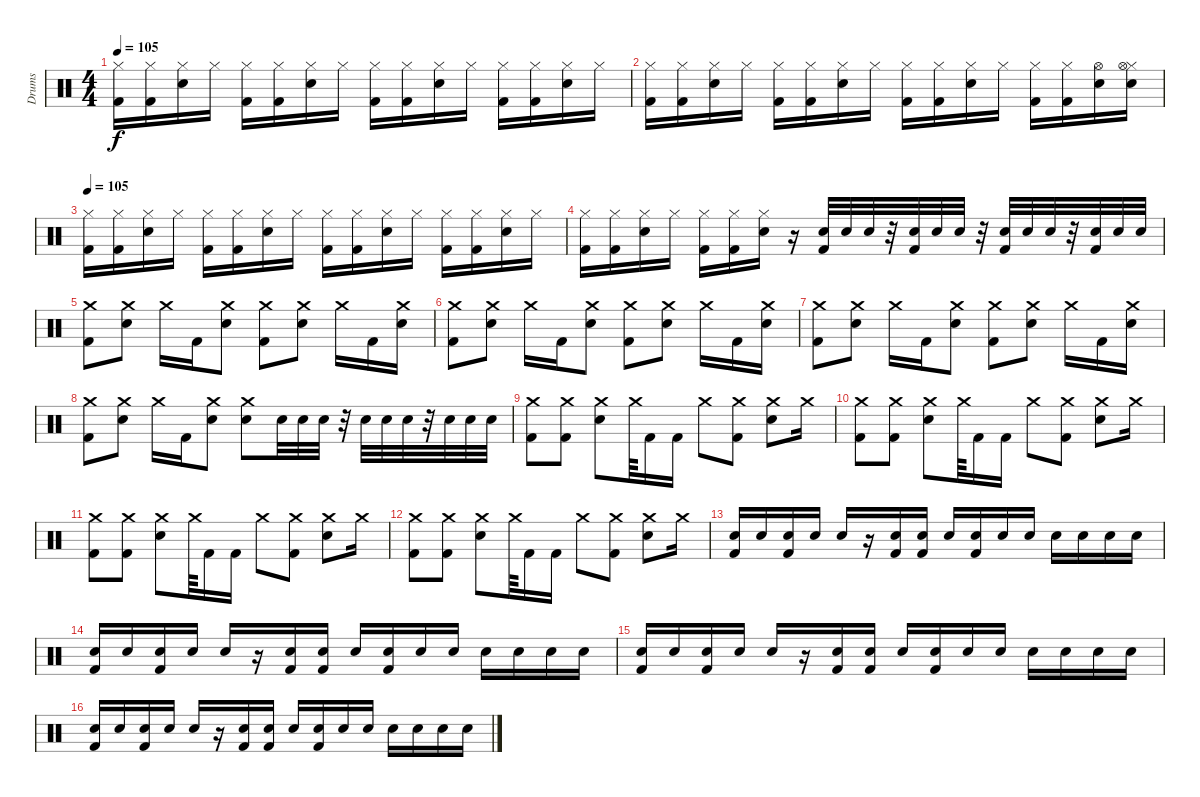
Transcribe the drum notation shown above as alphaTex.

\track ("Drums" "Drums") {instrument percussion}
\staff {score}
\articulation defaults
\ts (4 4)
\tempo 105
\clef neutral
\ks c
("Hi-Hat (closed)" "Kick (hit) 2").16{dy f} ("Hi-Hat (closed)" "Kick (hit) 2").16 ("Hi-Hat (closed)" "Snare (hit) 2").16 "Hi-Hat (closed)".16 ("Hi-Hat (closed)" "Kick (hit) 2").16 ("Hi-Hat (closed)" "Kick (hit) 2").16 ("Hi-Hat (closed)" "Snare (hit) 2").16 "Hi-Hat (closed)".16 ("Hi-Hat (closed)" "Kick (hit) 2").16 ("Hi-Hat (closed)" "Kick (hit) 2").16 ("Hi-Hat (closed)" "Snare (hit) 2").16 "Hi-Hat (closed)".16 ("Hi-Hat (closed)" "Kick (hit) 2").16 ("Hi-Hat (closed)" "Kick (hit) 2").16 ("Hi-Hat (closed)" "Snare (hit) 2").16 "Hi-Hat (closed)".16 |
("Hi-Hat (closed)" "Kick (hit) 2").16 ("Hi-Hat (closed)" "Kick (hit) 2").16 ("Hi-Hat (closed)" "Snare (hit) 2").16 "Hi-Hat (closed)".16 ("Hi-Hat (closed)" "Kick (hit) 2").16 ("Hi-Hat (closed)" "Kick (hit) 2").16 ("Hi-Hat (closed)" "Snare (hit) 2").16 "Hi-Hat (closed)".16 ("Hi-Hat (closed)" "Kick (hit) 2").16 ("Hi-Hat (closed)" "Kick (hit) 2").16 ("Hi-Hat (closed)" "Snare (hit) 2").16 "Hi-Hat (closed)".16 ("Hi-Hat (closed)" "Kick (hit) 2").16 ("Hi-Hat (closed)" "Kick (hit) 2").16 ("Hi-Hat (open)" "Snare (hit) 2").16 ("Hi-Hat (closed)" "Hi-Hat (open)" "Snare (hit) 2").16 |
\tempo 105
("Hi-Hat (closed)" "Kick (hit) 2").16 ("Hi-Hat (closed)" "Kick (hit) 2").16 ("Hi-Hat (closed)" "Snare (hit) 2").16 "Hi-Hat (closed)".16 ("Hi-Hat (closed)" "Kick (hit) 2").16 ("Hi-Hat (closed)" "Kick (hit) 2").16 ("Hi-Hat (closed)" "Snare (hit) 2").16 "Hi-Hat (closed)".16 ("Hi-Hat (closed)" "Kick (hit) 2").16 ("Hi-Hat (closed)" "Kick (hit) 2").16 ("Hi-Hat (closed)" "Snare (hit) 2").16 "Hi-Hat (closed)".16 ("Hi-Hat (closed)" "Kick (hit) 2").16 ("Hi-Hat (closed)" "Kick (hit) 2").16 ("Hi-Hat (closed)" "Snare (hit) 2").16 "Hi-Hat (closed)".16 |
("Hi-Hat (closed)" "Kick (hit) 2").16 ("Hi-Hat (closed)" "Kick (hit) 2").16 ("Hi-Hat (closed)" "Snare (hit) 2").16 "Hi-Hat (closed)".16 ("Hi-Hat (closed)" "Kick (hit) 2").16 ("Hi-Hat (closed)" "Kick (hit) 2").16 ("Hi-Hat (closed)" "Snare (hit) 2").16 r.16 ("Snare (hit) 2" "Kick (hit) 2").32 "Snare (hit) 2".32 "Snare (hit) 2".32 r.32 ("Snare (hit) 2" "Kick (hit) 2").32 "Snare (hit) 2".32 "Snare (hit) 2".32 r.32 ("Snare (hit) 2" "Kick (hit) 2").32 "Snare (hit) 2".32 "Snare (hit) 2".32 r.32 ("Snare (hit) 2" "Kick (hit) 2").32 "Snare (hit) 2".32 "Snare (hit) 2".32 |
("Crash medium (hit)" "Kick (hit) 2").8 ("Crash medium (hit)" "Snare (hit) 2").8 "Crash medium (hit)".16 "Kick (hit) 2".16 ("Crash medium (hit)" "Snare (hit) 2").8 ("Crash medium (hit)" "Kick (hit) 2").8 ("Crash medium (hit)" "Snare (hit) 2").8 "Crash medium (hit)".16 "Kick (hit) 2".16 ("Crash medium (hit)" "Snare (hit) 2").16 |
("Crash medium (hit)" "Kick (hit) 2").8 ("Crash medium (hit)" "Snare (hit) 2").8 "Crash medium (hit)".16 "Kick (hit) 2".16 ("Crash medium (hit)" "Snare (hit) 2").8 ("Crash medium (hit)" "Kick (hit) 2").8 ("Crash medium (hit)" "Snare (hit) 2").8 "Crash medium (hit)".16 "Kick (hit) 2".16 ("Crash medium (hit)" "Snare (hit) 2").16 |
("Crash medium (hit)" "Kick (hit) 2").8 ("Crash medium (hit)" "Snare (hit) 2").8 "Crash medium (hit)".16 "Kick (hit) 2".16 ("Crash medium (hit)" "Snare (hit) 2").8 ("Crash medium (hit)" "Kick (hit) 2").8 ("Crash medium (hit)" "Snare (hit) 2").8 "Crash medium (hit)".16 "Kick (hit) 2".16 ("Crash medium (hit)" "Snare (hit) 2").16 |
("Crash medium (hit)" "Kick (hit) 2").8 ("Crash medium (hit)" "Snare (hit) 2").8 "Crash medium (hit)".16 "Kick (hit) 2".16 ("Crash medium (hit)" "Snare (hit) 2").8 ("Crash medium (hit)" "Snare (hit) 2").8 "Snare (hit) 2".32 "Snare (hit) 2".32 "Snare (hit) 2".32 r.32 "Snare (hit) 2".32 "Snare (hit) 2".32 "Snare (hit) 2".32 r.32 "Snare (hit) 2".32 "Snare (hit) 2".32 "Snare (hit) 2".32 |
("Crash medium (hit)" "Kick (hit) 2").8 ("Crash medium (hit)" "Kick (hit) 2").8 ("Crash medium (hit)" "Snare (hit) 2").8 "Crash medium (hit)".64 "Kick (hit) 2".16 "Kick (hit) 2".16 "Crash medium (hit)".8 ("Crash medium (hit)" "Kick (hit) 2").8 ("Crash medium (hit)" "Snare (hit) 2").8 "Crash medium (hit)".16 |
("Crash medium (hit)" "Kick (hit) 2").8 ("Crash medium (hit)" "Kick (hit) 2").8 ("Crash medium (hit)" "Snare (hit) 2").8 "Crash medium (hit)".64 "Kick (hit) 2".16 "Kick (hit) 2".16 "Crash medium (hit)".8 ("Crash medium (hit)" "Kick (hit) 2").8 ("Crash medium (hit)" "Snare (hit) 2").8 "Crash medium (hit)".16 |
("Crash medium (hit)" "Kick (hit) 2").8 ("Crash medium (hit)" "Kick (hit) 2").8 ("Crash medium (hit)" "Snare (hit) 2").8 "Crash medium (hit)".64 "Kick (hit) 2".16 "Kick (hit) 2".16 "Crash medium (hit)".8 ("Crash medium (hit)" "Kick (hit) 2").8 ("Crash medium (hit)" "Snare (hit) 2").8 "Crash medium (hit)".16 |
("Crash medium (hit)" "Kick (hit) 2").8 ("Crash medium (hit)" "Kick (hit) 2").8 ("Crash medium (hit)" "Snare (hit) 2").8 "Crash medium (hit)".64 "Kick (hit) 2".16 "Kick (hit) 2".16 "Crash medium (hit)".8 ("Crash medium (hit)" "Kick (hit) 2").8 ("Crash medium (hit)" "Snare (hit) 2").8 "Crash medium (hit)".16 |
("Electric Snare (hit)" "Kick (hit) 2").16{volume 7} "Electric Snare (hit)".16 ("Electric Snare (hit)" "Kick (hit) 2").16 "Electric Snare (hit)".16 "Snare (hit) 2".16{volume 16} r.16 ("Electric Snare (hit)" "Kick (hit) 2").16{volume 7} ("Electric Snare (hit)" "Kick (hit) 2").16 "Electric Snare (hit)".16 ("Snare (hit) 2" "Kick (hit) 2").16{volume 16} "Electric Snare (hit)".16{volume 7} "Electric Snare (hit)".16 "Snare (hit) 2".16{volume 16} "Electric Snare (hit)".16{volume 7} "Electric Snare (hit)".16 "Electric Snare (hit)".16 |
("Electric Snare (hit)" "Kick (hit) 2").16{volume 7} "Electric Snare (hit)".16 ("Electric Snare (hit)" "Kick (hit) 2").16 "Electric Snare (hit)".16 "Snare (hit) 2".16{volume 16} r.16 ("Electric Snare (hit)" "Kick (hit) 2").16{volume 7} ("Electric Snare (hit)" "Kick (hit) 2").16 "Electric Snare (hit)".16 ("Snare (hit) 2" "Kick (hit) 2").16{volume 16} "Electric Snare (hit)".16{volume 7} "Electric Snare (hit)".16 "Snare (hit) 2".16{volume 16} "Electric Snare (hit)".16{volume 7} "Electric Snare (hit)".16 "Electric Snare (hit)".16 |
("Electric Snare (hit)" "Kick (hit) 2").16{volume 7} "Electric Snare (hit)".16 ("Electric Snare (hit)" "Kick (hit) 2").16 "Electric Snare (hit)".16 "Snare (hit) 2".16{volume 16} r.16 ("Electric Snare (hit)" "Kick (hit) 2").16{volume 7} ("Electric Snare (hit)" "Kick (hit) 2").16 "Electric Snare (hit)".16 ("Snare (hit) 2" "Kick (hit) 2").16{volume 16} "Electric Snare (hit)".16{volume 7} "Electric Snare (hit)".16 "Snare (hit) 2".16{volume 16} "Electric Snare (hit)".16{volume 7} "Electric Snare (hit)".16 "Electric Snare (hit)".16 |
("Electric Snare (hit)" "Kick (hit) 2").16{volume 7} "Electric Snare (hit)".16 ("Electric Snare (hit)" "Kick (hit) 2").16 "Electric Snare (hit)".16 "Snare (hit) 2".16{volume 16} r.16 ("Electric Snare (hit)" "Kick (hit) 2").16{volume 7} ("Electric Snare (hit)" "Kick (hit) 2").16 "Electric Snare (hit)".16 ("Snare (hit) 2" "Kick (hit) 2").16{volume 16} "Electric Snare (hit)".16{volume 7} "Electric Snare (hit)".16 "Snare (hit) 2".16{volume 16} "Electric Snare (hit)".16{volume 7} "Electric Snare (hit)".16 "Electric Snare (hit)".16
